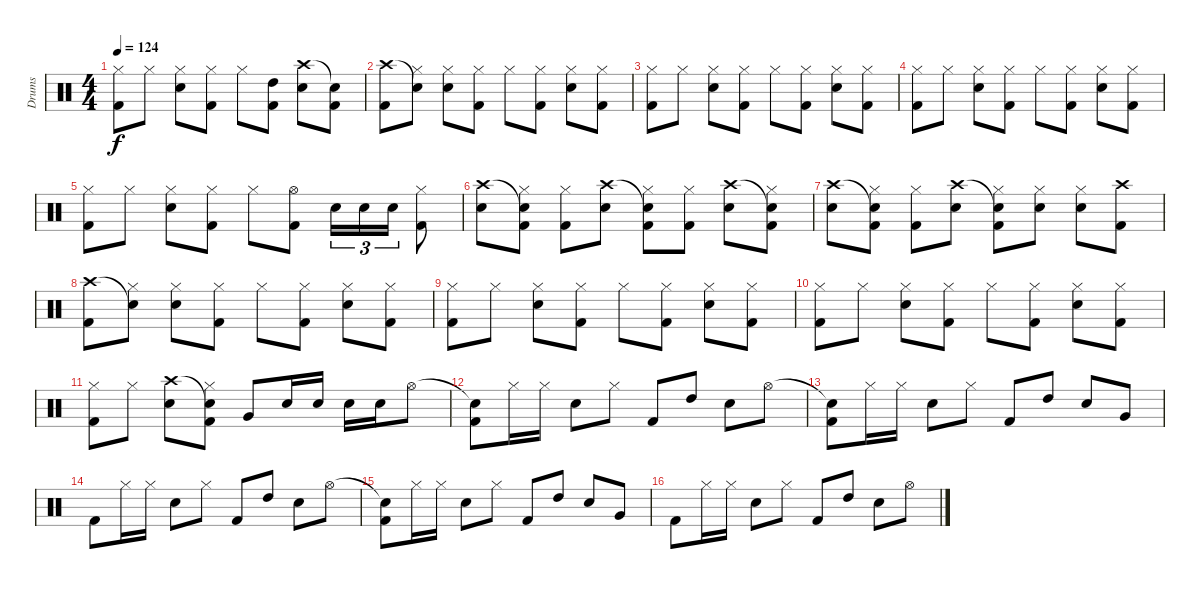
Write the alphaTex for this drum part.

\track ("Drums" "Drums") {instrument percussion}
\staff {score}
\articulation defaults
\ts (4 4)
\tempo 124
\clef neutral
\ks c
("Hi-Hat (closed)" "Kick (hit) 2").8{dy f} "Hi-Hat (closed)".8 ("Hi-Hat (closed)" "Snare (hit) 2").8 ("Hi-Hat (closed)" "Kick (hit) 2").8 "Hi-Hat (closed)".8 ("High Tom (hit)" "Kick (hit) 2").8 ("Crash high (hit)" "Snare (hit) 2").8 ("Snare (hit)"{t} "Kick (hit) 2").8 |
("Crash high (hit)" "Kick (hit) 2").8 ("Snare (hit)"{t} "Hi-Hat (closed)").8 ("Hi-Hat (closed)" "Snare (hit) 2").8 ("Hi-Hat (closed)" "Kick (hit) 2").8 "Hi-Hat (closed)".8 ("Hi-Hat (closed)" "Kick (hit) 2").8 ("Hi-Hat (closed)" "Snare (hit) 2").8 ("Hi-Hat (closed)" "Kick (hit) 2").8 |
("Hi-Hat (closed)" "Kick (hit) 2").8 "Hi-Hat (closed)".8 ("Hi-Hat (closed)" "Snare (hit) 2").8 ("Hi-Hat (closed)" "Kick (hit) 2").8 "Hi-Hat (closed)".8 ("Hi-Hat (closed)" "Kick (hit) 2").8 ("Hi-Hat (closed)" "Snare (hit) 2").8 ("Hi-Hat (closed)" "Kick (hit) 2").8 |
("Hi-Hat (closed)" "Kick (hit) 2").8 "Hi-Hat (closed)".8 ("Hi-Hat (closed)" "Snare (hit) 2").8 ("Hi-Hat (closed)" "Kick (hit) 2").8 "Hi-Hat (closed)".8 ("Hi-Hat (closed)" "Kick (hit) 2").8 ("Hi-Hat (closed)" "Snare (hit) 2").8 ("Hi-Hat (closed)" "Kick (hit) 2").8 |
("Hi-Hat (closed)" "Kick (hit) 2").8 "Hi-Hat (closed)".8 ("Hi-Hat (closed)" "Snare (hit) 2").8 ("Hi-Hat (closed)" "Kick (hit) 2").8 "Hi-Hat (closed)".8 ("Hi-Hat (open)" "Kick (hit) 2").8 "Snare (hit) 2".16{tu (3 2)} "Snare (hit) 2".16{tu (3 2)} "Snare (hit) 2".16{tu (3 2)} ("Hi-Hat (closed)" "Kick (hit) 2").8 |
("Crash high (hit)" "Snare (hit) 2").8 ("Snare (hit)"{t} "Hi-Hat (closed)" "Kick (hit) 2").8 ("Hi-Hat (closed)" "Kick (hit) 2").8 ("Crash high (hit)" "Snare (hit) 2").8 ("Snare (hit)"{t} "Hi-Hat (closed)" "Kick (hit) 2").8 ("Hi-Hat (closed)" "Kick (hit) 2").8 ("Crash high (hit)" "Snare (hit) 2").8 ("Snare (hit)"{t} "Hi-Hat (closed)" "Kick (hit) 2").8 |
("Crash high (hit)" "Snare (hit) 2").8 ("Snare (hit)"{t} "Hi-Hat (closed)" "Kick (hit) 2").8 ("Hi-Hat (closed)" "Kick (hit) 2").8 ("Crash high (hit)" "Snare (hit) 2").8 ("Snare (hit)"{t} "Hi-Hat (closed)" "Kick (hit) 2").8 ("Hi-Hat (closed)" "Snare (hit) 2").8 ("Hi-Hat (closed)" "Snare (hit) 2").8 ("Crash high (hit)" "Kick (hit) 2").8 |
("Crash high (hit)" "Kick (hit) 2").8 ("Snare (hit)"{t} "Hi-Hat (closed)").8 ("Hi-Hat (closed)" "Snare (hit) 2").8 ("Hi-Hat (closed)" "Kick (hit) 2").8 "Hi-Hat (closed)".8 ("Hi-Hat (closed)" "Kick (hit) 2").8 ("Hi-Hat (closed)" "Snare (hit) 2").8 ("Hi-Hat (closed)" "Kick (hit) 2").8 |
("Hi-Hat (closed)" "Kick (hit) 2").8 "Hi-Hat (closed)".8 ("Hi-Hat (closed)" "Snare (hit) 2").8 ("Hi-Hat (closed)" "Kick (hit) 2").8 "Hi-Hat (closed)".8 ("Hi-Hat (closed)" "Kick (hit) 2").8 ("Hi-Hat (closed)" "Snare (hit) 2").8 ("Hi-Hat (closed)" "Kick (hit) 2").8 |
("Hi-Hat (closed)" "Kick (hit) 2").8 "Hi-Hat (closed)".8 ("Hi-Hat (closed)" "Snare (hit) 2").8 ("Hi-Hat (closed)" "Kick (hit) 2").8 "Hi-Hat (closed)".8 ("Hi-Hat (closed)" "Kick (hit) 2").8 ("Hi-Hat (closed)" "Snare (hit) 2").8 ("Hi-Hat (closed)" "Kick (hit) 2").8 |
("Hi-Hat (closed)" "Kick (hit) 2").8 "Hi-Hat (closed)".8 ("Crash high (hit)" "Snare (hit) 2").8 ("Snare (hit)"{t} "Hi-Hat (closed)" "Kick (hit) 2").8 "Very Low Tom (hit)".8 "Snare (hit) 2".16 "Snare (hit) 2".16 "Snare (hit) 2".16 "Snare (hit) 2".16 "Hi-Hat (open)".8 |
("Snare (hit)"{t} "Kick (hit) 2").8 "Hi-Hat (closed)".16 "Hi-Hat (closed)".16 "Snare (hit) 2".8 "Hi-Hat (closed)".8 "Kick (hit) 2".8 "High Tom (hit)".8 "Snare (hit) 2".8 "Hi-Hat (open)".8 |
("Snare (hit)"{t} "Kick (hit) 2").8 "Hi-Hat (closed)".16 "Hi-Hat (closed)".16 "Snare (hit) 2".8 "Hi-Hat (closed)".8 "Kick (hit) 2".8 "High Tom (hit)".8 "Snare (hit) 2".8 "Very Low Tom (hit)".8 |
"Kick (hit) 2".8 "Hi-Hat (closed)".16 "Hi-Hat (closed)".16 "Snare (hit) 2".8 "Hi-Hat (closed)".8 "Kick (hit) 2".8 "High Tom (hit)".8 "Snare (hit) 2".8 "Hi-Hat (open)".8 |
("Snare (hit)"{t} "Kick (hit) 2").8 "Hi-Hat (closed)".16 "Hi-Hat (closed)".16 "Snare (hit) 2".8 "Hi-Hat (closed)".8 "Kick (hit) 2".8 "High Tom (hit)".8 "Snare (hit) 2".8 "Very Low Tom (hit)".8 |
"Kick (hit) 2".8 "Hi-Hat (closed)".16 "Hi-Hat (closed)".16 "Snare (hit) 2".8 "Hi-Hat (closed)".8 "Kick (hit) 2".8 "High Tom (hit)".8 "Snare (hit) 2".8 "Hi-Hat (open)".8
